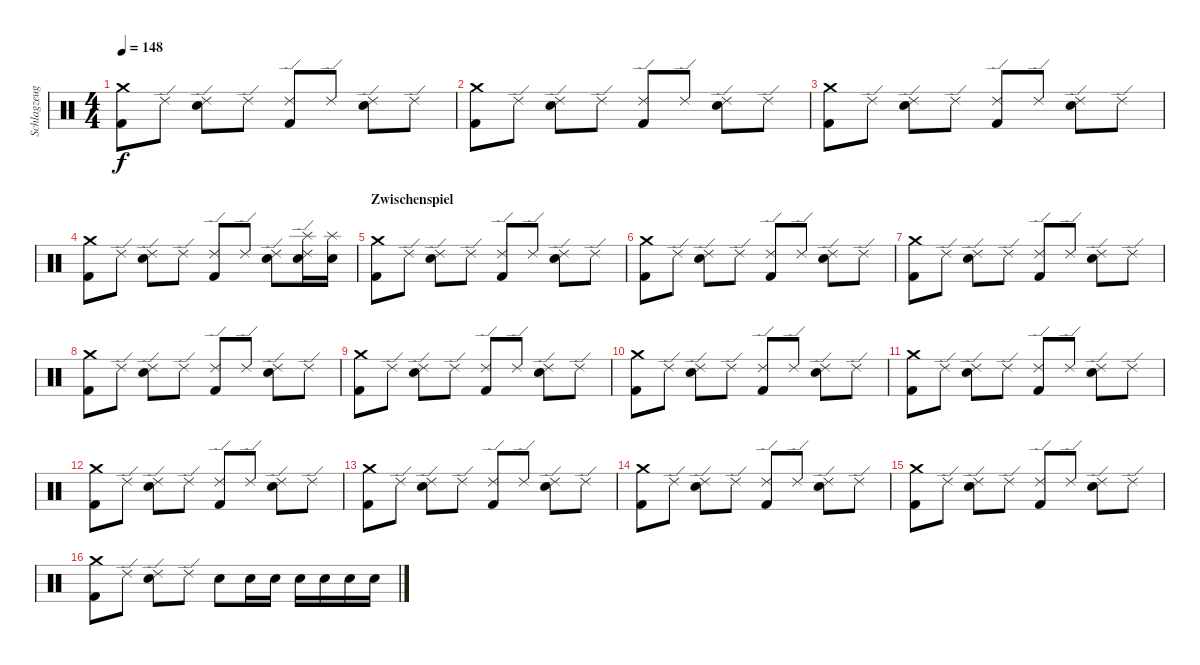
\track ("Schlagzeug" "Schlagzeug") {instrument percussion}
\staff {score}
\articulation defaults
\ts (4 4)
\tempo 148
\clef neutral
\ks c
("Crash medium (hit)" "Kick (hit) 2").8{dy f} "Ride (edge) 2".8 ("Ride (edge) 2" "Snare (hit) 2").8 "Ride (edge) 2".8 ("Ride (edge) 2" "Kick (hit) 2").8 "Ride (edge) 2".8 ("Ride (edge) 2" "Snare (hit) 2").8 "Ride (edge) 2".8 |
("Crash medium (hit)" "Kick (hit) 2").8 "Ride (edge) 2".8 ("Ride (edge) 2" "Snare (hit) 2").8 "Ride (edge) 2".8 ("Ride (edge) 2" "Kick (hit) 2").8 "Ride (edge) 2".8 ("Ride (edge) 2" "Snare (hit) 2").8 "Ride (edge) 2".8 |
("Crash medium (hit)" "Kick (hit) 2").8 "Ride (edge) 2".8 ("Ride (edge) 2" "Snare (hit) 2").8 "Ride (edge) 2".8 ("Ride (edge) 2" "Kick (hit) 2").8 "Ride (edge) 2".8 ("Ride (edge) 2" "Snare (hit) 2").8 "Ride (edge) 2".8 |
("Crash medium (hit)" "Kick (hit) 2").8 "Ride (edge) 2".8 ("Ride (edge) 2" "Snare (hit) 2").8 "Ride (edge) 2".8 ("Ride (edge) 2" "Kick (hit) 2").8 "Ride (edge) 2".8 ("Ride (edge) 2" "Snare (hit) 2").8 ("Splash (hit)" "Snare (hit) 2" "Ride (edge) 2").16 ("Splash (hit)" "Snare (hit) 2").16 |
\section ("" "Zwischenspiel")
("Crash medium (hit)" "Kick (hit) 2").8 "Ride (edge) 2".8 ("Ride (edge) 2" "Snare (hit) 2").8 "Ride (edge) 2".8 ("Ride (edge) 2" "Kick (hit) 2").8 "Ride (edge) 2".8 ("Ride (edge) 2" "Snare (hit) 2").8 "Ride (edge) 2".8 |
("Crash medium (hit)" "Kick (hit) 2").8 "Ride (edge) 2".8 ("Ride (edge) 2" "Snare (hit) 2").8 "Ride (edge) 2".8 ("Ride (edge) 2" "Kick (hit) 2").8 "Ride (edge) 2".8 ("Ride (edge) 2" "Snare (hit) 2").8 "Ride (edge) 2".8 |
("Crash medium (hit)" "Kick (hit) 2").8 "Ride (edge) 2".8 ("Ride (edge) 2" "Snare (hit) 2").8 "Ride (edge) 2".8 ("Ride (edge) 2" "Kick (hit) 2").8 "Ride (edge) 2".8 ("Ride (edge) 2" "Snare (hit) 2").8 "Ride (edge) 2".8 |
("Crash medium (hit)" "Kick (hit) 2").8 "Ride (edge) 2".8 ("Ride (edge) 2" "Snare (hit) 2").8 "Ride (edge) 2".8 ("Ride (edge) 2" "Kick (hit) 2").8 "Ride (edge) 2".8 ("Ride (edge) 2" "Snare (hit) 2").8 "Ride (edge) 2".8 |
("Crash medium (hit)" "Kick (hit) 2").8 "Ride (edge) 2".8 ("Ride (edge) 2" "Snare (hit) 2").8 "Ride (edge) 2".8 ("Ride (edge) 2" "Kick (hit) 2").8 "Ride (edge) 2".8 ("Ride (edge) 2" "Snare (hit) 2").8 "Ride (edge) 2".8 |
("Crash medium (hit)" "Kick (hit) 2").8 "Ride (edge) 2".8 ("Ride (edge) 2" "Snare (hit) 2").8 "Ride (edge) 2".8 ("Ride (edge) 2" "Kick (hit) 2").8 "Ride (edge) 2".8 ("Ride (edge) 2" "Snare (hit) 2").8 "Ride (edge) 2".8 |
("Crash medium (hit)" "Kick (hit) 2").8 "Ride (edge) 2".8 ("Ride (edge) 2" "Snare (hit) 2").8 "Ride (edge) 2".8 ("Ride (edge) 2" "Kick (hit) 2").8 "Ride (edge) 2".8 ("Ride (edge) 2" "Snare (hit) 2").8 "Ride (edge) 2".8 |
("Crash medium (hit)" "Kick (hit) 2").8 "Ride (edge) 2".8 ("Ride (edge) 2" "Snare (hit) 2").8 "Ride (edge) 2".8 ("Ride (edge) 2" "Kick (hit) 2").8 "Ride (edge) 2".8 ("Ride (edge) 2" "Snare (hit) 2").8 "Ride (edge) 2".8 |
("Crash medium (hit)" "Kick (hit) 2").8 "Ride (edge) 2".8 ("Ride (edge) 2" "Snare (hit) 2").8 "Ride (edge) 2".8 ("Ride (edge) 2" "Kick (hit) 2").8 "Ride (edge) 2".8 ("Ride (edge) 2" "Snare (hit) 2").8 "Ride (edge) 2".8 |
("Crash medium (hit)" "Kick (hit) 2").8 "Ride (edge) 2".8 ("Ride (edge) 2" "Snare (hit) 2").8 "Ride (edge) 2".8 ("Ride (edge) 2" "Kick (hit) 2").8 "Ride (edge) 2".8 ("Ride (edge) 2" "Snare (hit) 2").8 "Ride (edge) 2".8 |
("Crash medium (hit)" "Kick (hit) 2").8 "Ride (edge) 2".8 ("Ride (edge) 2" "Snare (hit) 2").8 "Ride (edge) 2".8 ("Ride (edge) 2" "Kick (hit) 2").8 "Ride (edge) 2".8 ("Ride (edge) 2" "Snare (hit) 2").8 "Ride (edge) 2".8 |
("Crash medium (hit)" "Kick (hit) 2").8 "Ride (edge) 2".8 ("Ride (edge) 2" "Snare (hit) 2").8 "Ride (edge) 2".8 "Snare (hit) 2".8 "Snare (hit) 2".16 "Snare (hit) 2".16 "Snare (hit) 2".16 "Snare (hit) 2".16 "Snare (hit) 2".16 "Snare (hit) 2".16
